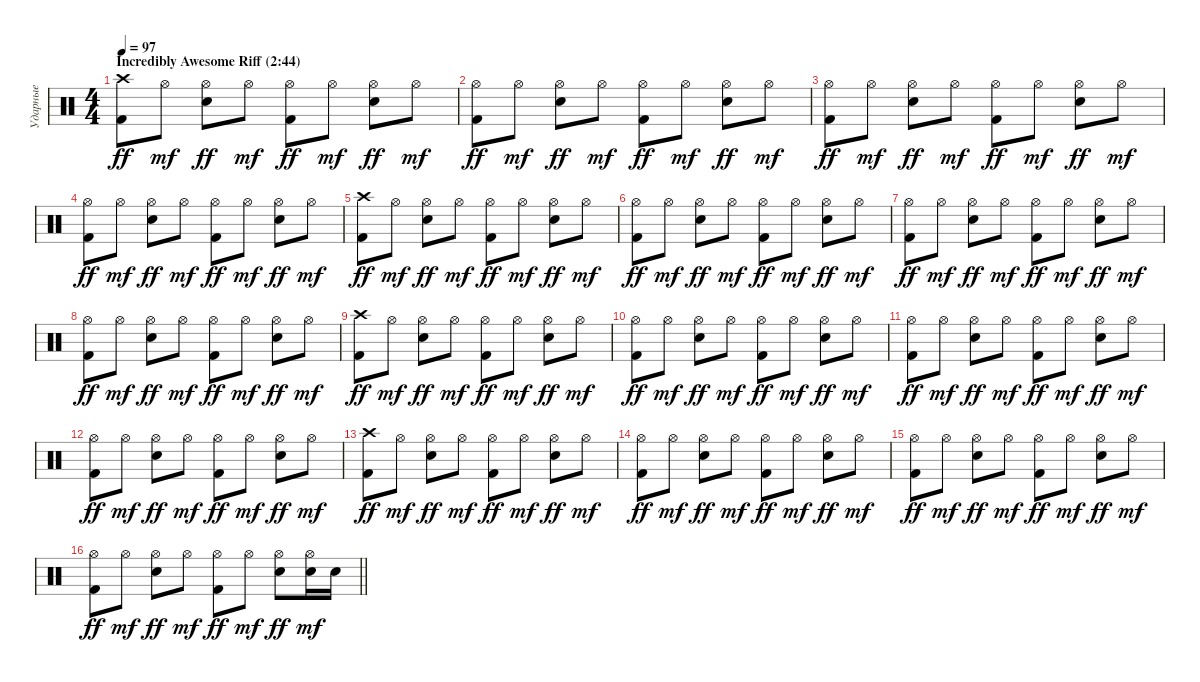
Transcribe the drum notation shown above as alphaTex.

\track ("Ударные" "Ударные") {instrument percussion}
\staff {score}
\articulation defaults
\ts (4 4)
\section ("" "Incredibly Awesome Riff (2:44)")
\tempo 97
\clef neutral
\ks c
("Crash high (hit)" "Kick (hit) 2").8{dy ff} "Hi-Hat (open)".8{dy mf} ("Hi-Hat (open)" "Snare (hit) 2").8{dy ff} "Hi-Hat (open)".8{dy mf} ("Hi-Hat (open)" "Kick (hit) 2").8{dy ff} "Hi-Hat (open)".8{dy mf} ("Hi-Hat (open)" "Snare (hit) 2").8{dy ff} "Hi-Hat (open)".8{dy mf} |
("Hi-Hat (open)" "Kick (hit) 2").8{dy ff} "Hi-Hat (open)".8{dy mf} ("Hi-Hat (open)" "Snare (hit) 2").8{dy ff} "Hi-Hat (open)".8{dy mf} ("Hi-Hat (open)" "Kick (hit) 2").8{dy ff} "Hi-Hat (open)".8{dy mf} ("Hi-Hat (open)" "Snare (hit) 2").8{dy ff} "Hi-Hat (open)".8{dy mf} |
("Hi-Hat (open)" "Kick (hit) 2").8{dy ff} "Hi-Hat (open)".8{dy mf} ("Hi-Hat (open)" "Snare (hit) 2").8{dy ff} "Hi-Hat (open)".8{dy mf} ("Hi-Hat (open)" "Kick (hit) 2").8{dy ff} "Hi-Hat (open)".8{dy mf} ("Hi-Hat (open)" "Snare (hit) 2").8{dy ff} "Hi-Hat (open)".8{dy mf} |
("Hi-Hat (open)" "Kick (hit) 2").8{dy ff} "Hi-Hat (open)".8{dy mf} ("Hi-Hat (open)" "Snare (hit) 2").8{dy ff} "Hi-Hat (open)".8{dy mf} ("Hi-Hat (open)" "Kick (hit) 2").8{dy ff} "Hi-Hat (open)".8{dy mf} ("Hi-Hat (open)" "Snare (hit) 2").8{dy ff} "Hi-Hat (open)".8{dy mf} |
("Crash high (hit)" "Kick (hit) 2").8{dy ff} "Hi-Hat (open)".8{dy mf} ("Hi-Hat (open)" "Snare (hit) 2").8{dy ff} "Hi-Hat (open)".8{dy mf} ("Hi-Hat (open)" "Kick (hit) 2").8{dy ff} "Hi-Hat (open)".8{dy mf} ("Hi-Hat (open)" "Snare (hit) 2").8{dy ff} "Hi-Hat (open)".8{dy mf} |
("Hi-Hat (open)" "Kick (hit) 2").8{dy ff} "Hi-Hat (open)".8{dy mf} ("Hi-Hat (open)" "Snare (hit) 2").8{dy ff} "Hi-Hat (open)".8{dy mf} ("Hi-Hat (open)" "Kick (hit) 2").8{dy ff} "Hi-Hat (open)".8{dy mf} ("Hi-Hat (open)" "Snare (hit) 2").8{dy ff} "Hi-Hat (open)".8{dy mf} |
("Hi-Hat (open)" "Kick (hit) 2").8{dy ff} "Hi-Hat (open)".8{dy mf} ("Hi-Hat (open)" "Snare (hit) 2").8{dy ff} "Hi-Hat (open)".8{dy mf} ("Hi-Hat (open)" "Kick (hit) 2").8{dy ff} "Hi-Hat (open)".8{dy mf} ("Hi-Hat (open)" "Snare (hit) 2").8{dy ff} "Hi-Hat (open)".8{dy mf} |
("Hi-Hat (open)" "Kick (hit) 2").8{dy ff} "Hi-Hat (open)".8{dy mf} ("Hi-Hat (open)" "Snare (hit) 2").8{dy ff} "Hi-Hat (open)".8{dy mf} ("Hi-Hat (open)" "Kick (hit) 2").8{dy ff} "Hi-Hat (open)".8{dy mf} ("Hi-Hat (open)" "Snare (hit) 2").8{dy ff} "Hi-Hat (open)".8{dy mf} |
("Crash high (hit)" "Kick (hit) 2").8{dy ff} "Hi-Hat (open)".8{dy mf} ("Hi-Hat (open)" "Snare (hit) 2").8{dy ff} "Hi-Hat (open)".8{dy mf} ("Hi-Hat (open)" "Kick (hit) 2").8{dy ff} "Hi-Hat (open)".8{dy mf} ("Hi-Hat (open)" "Snare (hit) 2").8{dy ff} "Hi-Hat (open)".8{dy mf} |
("Hi-Hat (open)" "Kick (hit) 2").8{dy ff} "Hi-Hat (open)".8{dy mf} ("Hi-Hat (open)" "Snare (hit) 2").8{dy ff} "Hi-Hat (open)".8{dy mf} ("Hi-Hat (open)" "Kick (hit) 2").8{dy ff} "Hi-Hat (open)".8{dy mf} ("Hi-Hat (open)" "Snare (hit) 2").8{dy ff} "Hi-Hat (open)".8{dy mf} |
("Hi-Hat (open)" "Kick (hit) 2").8{dy ff} "Hi-Hat (open)".8{dy mf} ("Hi-Hat (open)" "Snare (hit) 2").8{dy ff} "Hi-Hat (open)".8{dy mf} ("Hi-Hat (open)" "Kick (hit) 2").8{dy ff} "Hi-Hat (open)".8{dy mf} ("Hi-Hat (open)" "Snare (hit) 2").8{dy ff} "Hi-Hat (open)".8{dy mf} |
("Hi-Hat (open)" "Kick (hit) 2").8{dy ff} "Hi-Hat (open)".8{dy mf} ("Hi-Hat (open)" "Snare (hit) 2").8{dy ff} "Hi-Hat (open)".8{dy mf} ("Hi-Hat (open)" "Kick (hit) 2").8{dy ff} "Hi-Hat (open)".8{dy mf} ("Hi-Hat (open)" "Snare (hit) 2").8{dy ff} "Hi-Hat (open)".8{dy mf} |
("Crash high (hit)" "Kick (hit) 2").8{dy ff} "Hi-Hat (open)".8{dy mf} ("Hi-Hat (open)" "Snare (hit) 2").8{dy ff} "Hi-Hat (open)".8{dy mf} ("Hi-Hat (open)" "Kick (hit) 2").8{dy ff} "Hi-Hat (open)".8{dy mf} ("Hi-Hat (open)" "Snare (hit) 2").8{dy ff} "Hi-Hat (open)".8{dy mf} |
("Hi-Hat (open)" "Kick (hit) 2").8{dy ff} "Hi-Hat (open)".8{dy mf} ("Hi-Hat (open)" "Snare (hit) 2").8{dy ff} "Hi-Hat (open)".8{dy mf} ("Hi-Hat (open)" "Kick (hit) 2").8{dy ff} "Hi-Hat (open)".8{dy mf} ("Hi-Hat (open)" "Snare (hit) 2").8{dy ff} "Hi-Hat (open)".8{dy mf} |
("Hi-Hat (open)" "Kick (hit) 2").8{dy ff} "Hi-Hat (open)".8{dy mf} ("Hi-Hat (open)" "Snare (hit) 2").8{dy ff} "Hi-Hat (open)".8{dy mf} ("Hi-Hat (open)" "Kick (hit) 2").8{dy ff} "Hi-Hat (open)".8{dy mf} ("Hi-Hat (open)" "Snare (hit) 2").8{dy ff} "Hi-Hat (open)".8{dy mf} |
\barLineRight lightlight
("Hi-Hat (open)" "Kick (hit) 2").8{dy ff} "Hi-Hat (open)".8{dy mf} ("Hi-Hat (open)" "Snare (hit) 2").8{dy ff} "Hi-Hat (open)".8{dy mf} ("Hi-Hat (open)" "Kick (hit) 2").8{dy ff} "Hi-Hat (open)".8{dy mf} ("Hi-Hat (open)" "Snare (hit) 2").8{dy ff} ("Hi-Hat (open)" "Snare (hit) 2").16{dy mf} "Snare (hit) 2".16
